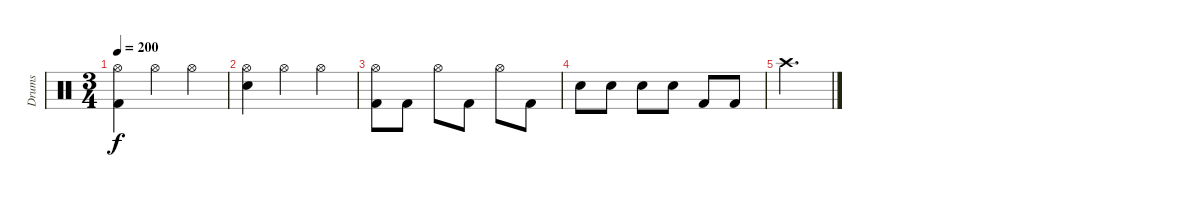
\track ("Drums" "Drums") {instrument percussion}
\staff {score}
\articulation defaults
\ts (3 4)
\tempo 200
\clef neutral
\ks c
("Hi-Hat (open)" "Kick (hit) 2").4{dy f} "Hi-Hat (open)".4 "Hi-Hat (open)".4 |
("Hi-Hat (open)" "Electric Snare (hit)").4 "Hi-Hat (open)".4 "Hi-Hat (open)".4 |
("Hi-Hat (open)" "Kick (hit) 2").8 "Kick (hit) 2".8 "Hi-Hat (open)".8 "Kick (hit) 2".8 "Hi-Hat (open)".8 "Kick (hit) 2".8 |
"Electric Snare (hit)".8 "Electric Snare (hit)".8 "Snare (hit) 2".8 "Snare (hit) 2".8 "Kick (hit) 2".8 "Kick (hit) 2".8 |
"Crash high (hit)".2{d}
